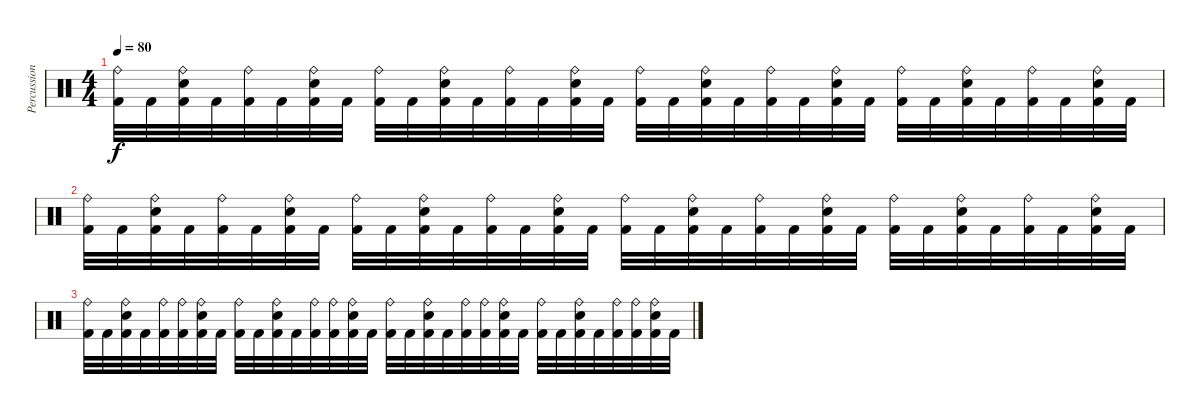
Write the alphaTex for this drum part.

\track ("Percussion" "Percussion") {instrument percussion}
\staff {score}
\articulation defaults
\ts (4 4)
\tempo 80
\clef neutral
\ks c
("Ride (bell)" "Kick (hit) 2").32{dy f} "Kick (hit) 2".32 ("Ride (bell)" "Electric Snare (hit)" "Kick (hit) 2").32 "Kick (hit) 2".32 ("Ride (bell)" "Kick (hit) 2").32 "Kick (hit) 2".32 ("Ride (bell)" "Electric Snare (hit)" "Kick (hit) 2").32 "Kick (hit) 2".32 ("Ride (bell)" "Kick (hit) 2").32 "Kick (hit) 2".32 ("Ride (bell)" "Electric Snare (hit)" "Kick (hit) 2").32 "Kick (hit) 2".32 ("Ride (bell)" "Kick (hit) 2").32 "Kick (hit) 2".32 ("Ride (bell)" "Electric Snare (hit)" "Kick (hit) 2").32 "Kick (hit) 2".32 ("Ride (bell)" "Kick (hit) 2").32 "Kick (hit) 2".32 ("Ride (bell)" "Electric Snare (hit)" "Kick (hit) 2").32 "Kick (hit) 2".32 ("Ride (bell)" "Kick (hit) 2").32 "Kick (hit) 2".32 ("Ride (bell)" "Electric Snare (hit)" "Kick (hit) 2").32 "Kick (hit) 2".32 ("Ride (bell)" "Kick (hit) 2").32 "Kick (hit) 2".32 ("Ride (bell)" "Electric Snare (hit)" "Kick (hit) 2").32 "Kick (hit) 2".32 ("Ride (bell)" "Kick (hit) 2").32 "Kick (hit) 2".32 ("Ride (bell)" "Electric Snare (hit)" "Kick (hit) 2").32 "Kick (hit) 2".32 |
("Ride (bell)" "Kick (hit) 2").32 "Kick (hit) 2".32 ("Ride (bell)" "Electric Snare (hit)" "Kick (hit) 2").32 "Kick (hit) 2".32 ("Ride (bell)" "Kick (hit) 2").32 "Kick (hit) 2".32 ("Ride (bell)" "Electric Snare (hit)" "Kick (hit) 2").32 "Kick (hit) 2".32 ("Ride (bell)" "Kick (hit) 2").32 "Kick (hit) 2".32 ("Ride (bell)" "Electric Snare (hit)" "Kick (hit) 2").32 "Kick (hit) 2".32 ("Ride (bell)" "Kick (hit) 2").32 "Kick (hit) 2".32 ("Ride (bell)" "Electric Snare (hit)" "Kick (hit) 2").32 "Kick (hit) 2".32 ("Ride (bell)" "Kick (hit) 2").32 "Kick (hit) 2".32 ("Ride (bell)" "Electric Snare (hit)" "Kick (hit) 2").32 "Kick (hit) 2".32 ("Ride (bell)" "Kick (hit) 2").32 "Kick (hit) 2".32 ("Ride (bell)" "Electric Snare (hit)" "Kick (hit) 2").32 "Kick (hit) 2".32 ("Ride (bell)" "Kick (hit) 2").32 "Kick (hit) 2".32 ("Ride (bell)" "Electric Snare (hit)" "Kick (hit) 2").32 "Kick (hit) 2".32 ("Ride (bell)" "Kick (hit) 2").32 "Kick (hit) 2".32 ("Ride (bell)" "Electric Snare (hit)" "Kick (hit) 2").32 "Kick (hit) 2".32 |
("Ride (bell)" "Kick (hit) 2").32 "Kick (hit) 2".32 ("Ride (bell)" "Electric Snare (hit)" "Kick (hit) 2").32 "Kick (hit) 2".32 ("Ride (bell)" "Kick (hit) 2").32 ("Ride (bell)" "Kick (hit) 2").32 ("Ride (bell)" "Electric Snare (hit)" "Kick (hit) 2").32 "Kick (hit) 2".32 ("Ride (bell)" "Kick (hit) 2").32 "Kick (hit) 2".32 ("Ride (bell)" "Electric Snare (hit)" "Kick (hit) 2").32 "Kick (hit) 2".32 ("Ride (bell)" "Kick (hit) 2").32 ("Ride (bell)" "Kick (hit) 2").32 ("Ride (bell)" "Electric Snare (hit)" "Kick (hit) 2").32 "Kick (hit) 2".32 ("Ride (bell)" "Kick (hit) 2").32 "Kick (hit) 2".32 ("Ride (bell)" "Electric Snare (hit)" "Kick (hit) 2").32 "Kick (hit) 2".32 ("Ride (bell)" "Kick (hit) 2").32 ("Ride (bell)" "Kick (hit) 2").32 ("Ride (bell)" "Electric Snare (hit)" "Kick (hit) 2").32 "Kick (hit) 2".32 ("Ride (bell)" "Kick (hit) 2").32 "Kick (hit) 2".32 ("Ride (bell)" "Electric Snare (hit)" "Kick (hit) 2").32 "Kick (hit) 2".32 ("Ride (bell)" "Kick (hit) 2").32 ("Ride (bell)" "Kick (hit) 2").32 ("Ride (bell)" "Electric Snare (hit)" "Kick (hit) 2").32 "Kick (hit) 2".32
